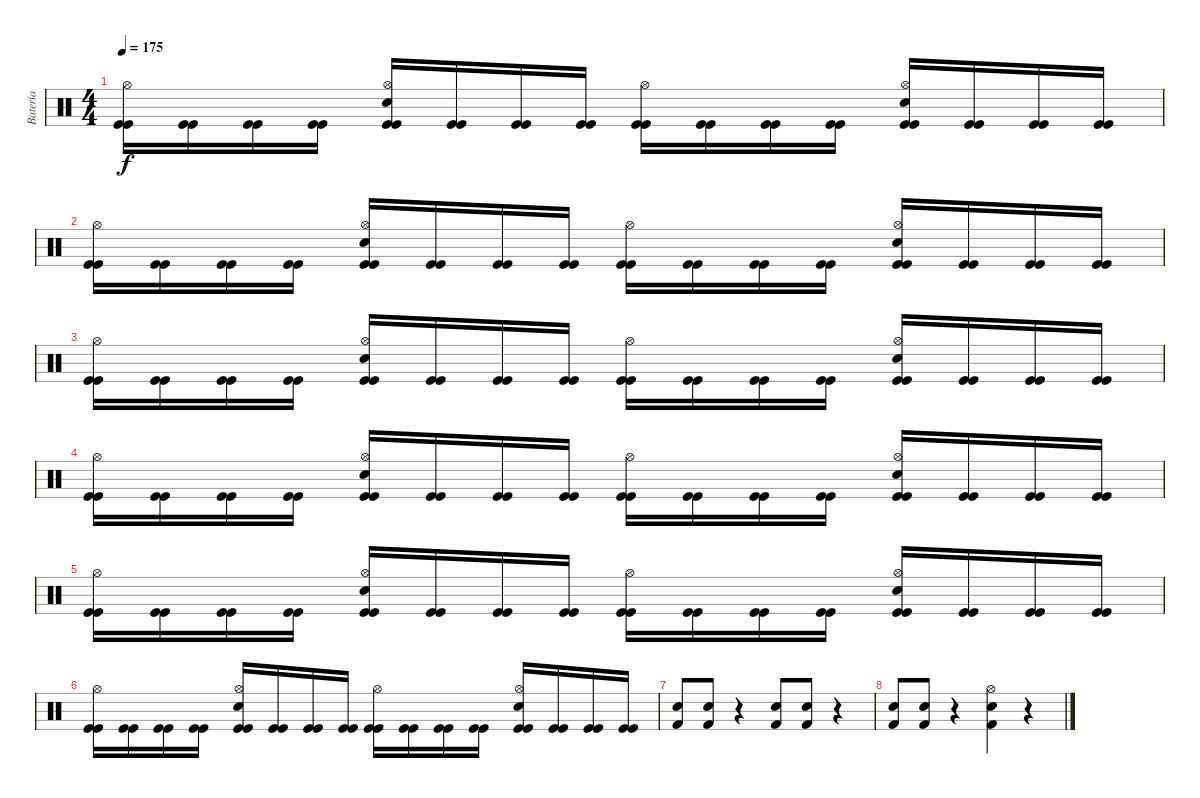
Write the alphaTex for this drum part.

\track ("Batería" "Batería") {instrument percussion}
\staff {score}
\articulation defaults
\ts (4 4)
\tempo 175
\clef neutral
\ks c
("Kick (hit)" "Kick (hit)" "Hi-Hat (open)").16{dy f} ("Kick (hit)" "Kick (hit)").16 ("Kick (hit)" "Kick (hit)").16 ("Kick (hit)" "Kick (hit)").16 ("Kick (hit)" "Kick (hit)" "Snare (hit) 2" "Hi-Hat (open)").16 ("Kick (hit)" "Kick (hit)").16 ("Kick (hit)" "Kick (hit)").16 ("Kick (hit)" "Kick (hit)").16 ("Kick (hit)" "Kick (hit)" "Hi-Hat (open)").16 ("Kick (hit)" "Kick (hit)").16 ("Kick (hit)" "Kick (hit)").16 ("Kick (hit)" "Kick (hit)").16 ("Kick (hit)" "Kick (hit)" "Snare (hit) 2" "Hi-Hat (open)").16 ("Kick (hit)" "Kick (hit)").16 ("Kick (hit)" "Kick (hit)").16 ("Kick (hit)" "Kick (hit)").16 |
("Kick (hit)" "Kick (hit)" "Hi-Hat (open)").16 ("Kick (hit)" "Kick (hit)").16 ("Kick (hit)" "Kick (hit)").16 ("Kick (hit)" "Kick (hit)").16 ("Kick (hit)" "Kick (hit)" "Snare (hit) 2" "Hi-Hat (open)").16 ("Kick (hit)" "Kick (hit)").16 ("Kick (hit)" "Kick (hit)").16 ("Kick (hit)" "Kick (hit)").16 ("Kick (hit)" "Kick (hit)" "Hi-Hat (open)").16 ("Kick (hit)" "Kick (hit)").16 ("Kick (hit)" "Kick (hit)").16 ("Kick (hit)" "Kick (hit)").16 ("Kick (hit)" "Kick (hit)" "Snare (hit) 2" "Hi-Hat (open)").16 ("Kick (hit)" "Kick (hit)").16 ("Kick (hit)" "Kick (hit)").16 ("Kick (hit)" "Kick (hit)").16 |
("Kick (hit)" "Kick (hit)" "Hi-Hat (open)").16 ("Kick (hit)" "Kick (hit)").16 ("Kick (hit)" "Kick (hit)").16 ("Kick (hit)" "Kick (hit)").16 ("Kick (hit)" "Kick (hit)" "Snare (hit) 2" "Hi-Hat (open)").16 ("Kick (hit)" "Kick (hit)").16 ("Kick (hit)" "Kick (hit)").16 ("Kick (hit)" "Kick (hit)").16 ("Kick (hit)" "Kick (hit)" "Hi-Hat (open)").16 ("Kick (hit)" "Kick (hit)").16 ("Kick (hit)" "Kick (hit)").16 ("Kick (hit)" "Kick (hit)").16 ("Kick (hit)" "Kick (hit)" "Snare (hit) 2" "Hi-Hat (open)").16 ("Kick (hit)" "Kick (hit)").16 ("Kick (hit)" "Kick (hit)").16 ("Kick (hit)" "Kick (hit)").16 |
("Kick (hit)" "Kick (hit)" "Hi-Hat (open)").16 ("Kick (hit)" "Kick (hit)").16 ("Kick (hit)" "Kick (hit)").16 ("Kick (hit)" "Kick (hit)").16 ("Kick (hit)" "Kick (hit)" "Snare (hit) 2" "Hi-Hat (open)").16 ("Kick (hit)" "Kick (hit)").16 ("Kick (hit)" "Kick (hit)").16 ("Kick (hit)" "Kick (hit)").16 ("Kick (hit)" "Kick (hit)" "Hi-Hat (open)").16 ("Kick (hit)" "Kick (hit)").16 ("Kick (hit)" "Kick (hit)").16 ("Kick (hit)" "Kick (hit)").16 ("Kick (hit)" "Kick (hit)" "Snare (hit) 2" "Hi-Hat (open)").16 ("Kick (hit)" "Kick (hit)").16 ("Kick (hit)" "Kick (hit)").16 ("Kick (hit)" "Kick (hit)").16 |
("Kick (hit)" "Kick (hit)" "Hi-Hat (open)").16 ("Kick (hit)" "Kick (hit)").16 ("Kick (hit)" "Kick (hit)").16 ("Kick (hit)" "Kick (hit)").16 ("Kick (hit)" "Kick (hit)" "Snare (hit) 2" "Hi-Hat (open)").16 ("Kick (hit)" "Kick (hit)").16 ("Kick (hit)" "Kick (hit)").16 ("Kick (hit)" "Kick (hit)").16 ("Kick (hit)" "Kick (hit)" "Hi-Hat (open)").16 ("Kick (hit)" "Kick (hit)").16 ("Kick (hit)" "Kick (hit)").16 ("Kick (hit)" "Kick (hit)").16 ("Kick (hit)" "Kick (hit)" "Snare (hit) 2" "Hi-Hat (open)").16 ("Kick (hit)" "Kick (hit)").16 ("Kick (hit)" "Kick (hit)").16 ("Kick (hit)" "Kick (hit)").16 |
("Kick (hit)" "Kick (hit)" "Hi-Hat (open)").16 ("Kick (hit)" "Kick (hit)").16 ("Kick (hit)" "Kick (hit)").16 ("Kick (hit)" "Kick (hit)").16 ("Kick (hit)" "Kick (hit)" "Snare (hit) 2" "Hi-Hat (open)").16 ("Kick (hit)" "Kick (hit)").16 ("Kick (hit)" "Kick (hit)").16 ("Kick (hit)" "Kick (hit)").16 ("Kick (hit)" "Kick (hit)" "Hi-Hat (open)").16 ("Kick (hit)" "Kick (hit)").16 ("Kick (hit)" "Kick (hit)").16 ("Kick (hit)" "Kick (hit)").16 ("Kick (hit)" "Kick (hit)" "Snare (hit) 2" "Hi-Hat (open)").16 ("Kick (hit)" "Kick (hit)").16 ("Kick (hit)" "Kick (hit)").16 ("Kick (hit)" "Kick (hit)").16 |
("Kick (hit) 2" "Snare (hit) 2").8 ("Kick (hit) 2" "Snare (hit) 2").8 r.4 ("Kick (hit) 2" "Snare (hit) 2").8 ("Kick (hit) 2" "Snare (hit) 2").8 r.4 |
("Kick (hit) 2" "Snare (hit) 2").8 ("Kick (hit) 2" "Snare (hit) 2").8 r.4 ("Kick (hit) 2" "Snare (hit) 2" "Hi-Hat (open)").4 r.4
